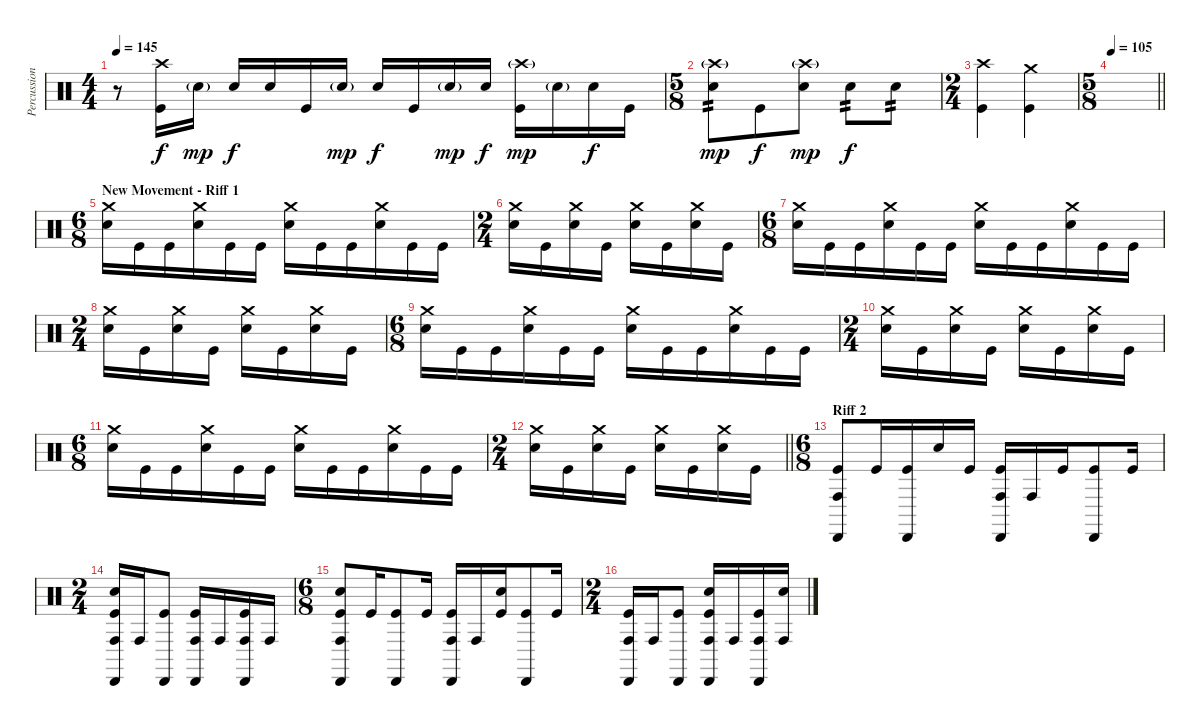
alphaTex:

\track ("Percussion" "Percussion") {instrument percussion}
\staff {score}
\articulation defaults
\ts (4 4)
\tempo 145
\clef neutral
\ks c
r.8{dy f} ("Crash high (hit)" "Kick (hit)").16 "Snare (hit) 2"{g}.16{dy mp} "Snare (hit) 2".16{dy f} "Snare (hit) 2".16 "Kick (hit)".16 "Snare (hit) 2"{g}.16{dy mp} "Snare (hit) 2".16{dy f} "Kick (hit)".16 "Snare (hit) 2"{g}.16{dy mp} "Snare (hit) 2".16{dy f} ("Crash high (hit)"{g} "Kick (hit)").16{dy mp} "Snare (hit) 2"{g}.16 "Snare (hit) 2".16{dy f} "Kick (hit)".16 |
\ts (5 8)
("Crash high (hit)"{g} "Snare (hit) 2").8{tp 2 dy mp} "Kick (hit)".8{dy f} ("Crash high (hit)"{g} "Snare (hit) 2").8{dy mp} "Snare (hit) 2".8{tp 2 dy f} "Snare (hit) 2".8{tp 2} |
\ts (2 4)
("Crash high (hit)" "Kick (hit)").4 ("Crash medium (hit)" "Kick (hit)").4 |
\ts (5 8)
\tempo 105
\barLineRight lightlight
|
\ts (6 8)
\section ("" "New Movement - Riff 1")
("Crash medium (hit)" "Snare (hit) 2").16 "Kick (hit)".16 "Kick (hit)".16 ("Crash medium (hit)" "Snare (hit) 2").16 "Kick (hit)".16 "Kick (hit)".16 ("Crash medium (hit)" "Snare (hit) 2").16 "Kick (hit)".16 "Kick (hit)".16 ("Crash medium (hit)" "Snare (hit) 2").16 "Kick (hit)".16 "Kick (hit)".16 |
\ts (2 4)
("Crash medium (hit)" "Snare (hit) 2").16 "Kick (hit)".16 ("Crash medium (hit)" "Snare (hit) 2").16 "Kick (hit)".16 ("Crash medium (hit)" "Snare (hit) 2").16 "Kick (hit)".16 ("Crash medium (hit)" "Snare (hit) 2").16 "Kick (hit)".16 |
\ts (6 8)
("Crash medium (hit)" "Snare (hit) 2").16 "Kick (hit)".16 "Kick (hit)".16 ("Crash medium (hit)" "Snare (hit) 2").16 "Kick (hit)".16 "Kick (hit)".16 ("Crash medium (hit)" "Snare (hit) 2").16 "Kick (hit)".16 "Kick (hit)".16 ("Crash medium (hit)" "Snare (hit) 2").16 "Kick (hit)".16 "Kick (hit)".16 |
\ts (2 4)
("Crash medium (hit)" "Snare (hit) 2").16 "Kick (hit)".16 ("Crash medium (hit)" "Snare (hit) 2").16 "Kick (hit)".16 ("Crash medium (hit)" "Snare (hit) 2").16 "Kick (hit)".16 ("Crash medium (hit)" "Snare (hit) 2").16 "Kick (hit)".16 |
\ts (6 8)
("Crash medium (hit)" "Snare (hit) 2").16 "Kick (hit)".16 "Kick (hit)".16 ("Crash medium (hit)" "Snare (hit) 2").16 "Kick (hit)".16 "Kick (hit)".16 ("Crash medium (hit)" "Snare (hit) 2").16 "Kick (hit)".16 "Kick (hit)".16 ("Crash medium (hit)" "Snare (hit) 2").16 "Kick (hit)".16 "Kick (hit)".16 |
\ts (2 4)
("Crash medium (hit)" "Snare (hit) 2").16 "Kick (hit)".16 ("Crash medium (hit)" "Snare (hit) 2").16 "Kick (hit)".16 ("Crash medium (hit)" "Snare (hit) 2").16 "Kick (hit)".16 ("Crash medium (hit)" "Snare (hit) 2").16 "Kick (hit)".16 |
\ts (6 8)
("Crash medium (hit)" "Snare (hit) 2").16 "Kick (hit)".16 "Kick (hit)".16 ("Crash medium (hit)" "Snare (hit) 2").16 "Kick (hit)".16 "Kick (hit)".16 ("Crash medium (hit)" "Snare (hit) 2").16 "Kick (hit)".16 "Kick (hit)".16 ("Crash medium (hit)" "Snare (hit) 2").16 "Kick (hit)".16 "Kick (hit)".16 |
\ts (2 4)
\barLineRight lightlight
("Crash medium (hit)" "Snare (hit) 2").16 "Kick (hit)".16 ("Crash medium (hit)" "Snare (hit) 2").16 "Kick (hit)".16 ("Crash medium (hit)" "Snare (hit) 2").16 "Kick (hit)".16 ("Crash medium (hit)" "Snare (hit) 2").16 "Kick (hit)".16 |
\ts (6 8)
\section ("" "Riff 2")
("Cabasa (hit)" "Conga high (hit)" "Kick (hit)").8 "Kick (hit)".16 ("Cabasa (hit)" "Kick (hit)").16 "Snare (hit) 2".16 "Kick (hit)".16 ("Cabasa (hit)" "Conga high (hit)" "Kick (hit)").16 "Conga high (hit)".16 "Kick (hit)".16 ("Cabasa (hit)" "Kick (hit)").8 "Kick (hit)".16 |
\ts (2 4)
("Cabasa (hit)" "Snare (hit) 2" "Conga high (hit)" "Kick (hit)").16 "Conga high (hit)".16 ("Cabasa (hit)" "Kick (hit)").8 ("Cabasa (hit)" "Conga high (hit)" "Kick (hit)").16 "Conga high (hit)".16 ("Cabasa (hit)" "Conga high (hit)" "Kick (hit)").16 "Conga high (hit)".16 |
\ts (6 8)
("Cabasa (hit)" "Snare (hit) 2" "Conga high (hit)" "Kick (hit)").8 "Kick (hit)".16 ("Cabasa (hit)" "Kick (hit)").8 "Kick (hit)".16 ("Cabasa (hit)" "Conga high (hit)" "Kick (hit)").16 "Conga high (hit)".16 ("Snare (hit) 2" "Kick (hit)").16 ("Cabasa (hit)" "Kick (hit)").8 "Kick (hit)".16 |
\ts (2 4)
("Cabasa (hit)" "Conga high (hit)" "Kick (hit)").16 "Conga high (hit)".16 ("Cabasa (hit)" "Kick (hit)").8 ("Cabasa (hit)" "Snare (hit) 2" "Conga high (hit)" "Kick (hit)").16 "Conga high (hit)".16 ("Cabasa (hit)" "Conga high (hit)" "Kick (hit)").16 ("Snare (hit) 2" "Conga high (hit)").16
